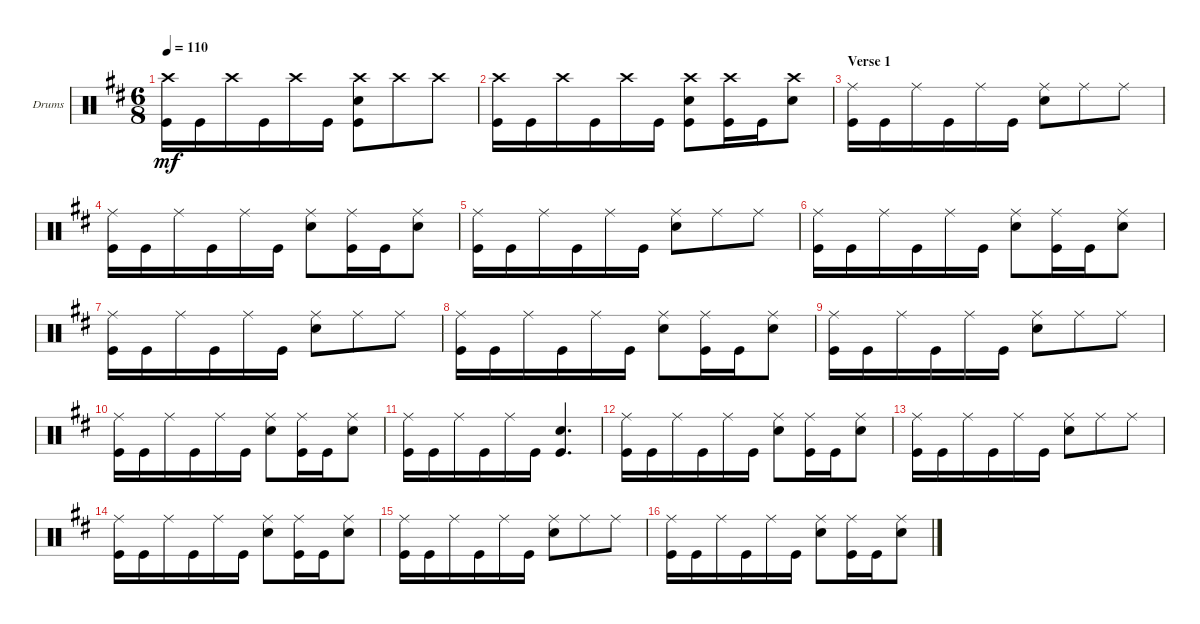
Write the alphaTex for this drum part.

\defaultSystemsLayout 4
\bracketExtendMode groupsimilarinstruments
\firstSystemTrackNameOrientation horizontal
\otherSystemsTrackNameOrientation horizontal
\track ("Drumkit" "Drums") {instrument percussion}
\staff {score}
\articulation defaults
\ts (6 8)
\tempo 110
\clef neutral
\ks d
("Kick (hit)" "Crash high (hit)").16{dy mf} "Kick (hit)".16 "Crash high (hit)".16 "Kick (hit)".16 "Crash high (hit)".16 "Kick (hit)".16 ("Kick (hit)" "Snare (hit) 2" "Crash high (hit)").8 "Crash high (hit)".8 "Crash high (hit)".8 |
("Kick (hit)" "Crash high (hit)").16 "Kick (hit)".16 "Crash high (hit)".16 "Kick (hit)".16 "Crash high (hit)".16 "Kick (hit)".16 ("Kick (hit)" "Snare (hit) 2" "Crash high (hit)").8 ("Kick (hit)" "Crash high (hit)").16 "Kick (hit)".16 ("Snare (hit) 2" "Crash high (hit)").8 |
\section ("" "Verse 1")
("Kick (hit)" "Ride (middle)").16 "Kick (hit)".16 "Ride (middle)".16 "Kick (hit)".16 "Ride (middle)".16 "Kick (hit)".16 ("Snare (hit) 2" "Ride (middle)").8 "Ride (middle)".8 "Ride (middle)".8 |
("Kick (hit)" "Ride (middle)").16 "Kick (hit)".16 "Ride (middle)".16 "Kick (hit)".16 "Ride (middle)".16 "Kick (hit)".16 ("Snare (hit) 2" "Ride (middle)").8 ("Kick (hit)" "Ride (middle)").16 "Kick (hit)".16 ("Snare (hit) 2" "Ride (middle)").8 |
("Kick (hit)" "Ride (middle)").16 "Kick (hit)".16 "Ride (middle)".16 "Kick (hit)".16 "Ride (middle)".16 "Kick (hit)".16 ("Snare (hit) 2" "Ride (middle)").8 "Ride (middle)".8 "Ride (middle)".8 |
("Kick (hit)" "Ride (middle)").16 "Kick (hit)".16 "Ride (middle)".16 "Kick (hit)".16 "Ride (middle)".16 "Kick (hit)".16 ("Snare (hit) 2" "Ride (middle)").8 ("Kick (hit)" "Ride (middle)").16 "Kick (hit)".16 ("Snare (hit) 2" "Ride (middle)").8 |
("Kick (hit)" "Ride (middle)").16 "Kick (hit)".16 "Ride (middle)".16 "Kick (hit)".16 "Ride (middle)".16 "Kick (hit)".16 ("Snare (hit) 2" "Ride (middle)").8 "Ride (middle)".8 "Ride (middle)".8 |
("Kick (hit)" "Ride (middle)").16 "Kick (hit)".16 "Ride (middle)".16 "Kick (hit)".16 "Ride (middle)".16 "Kick (hit)".16 ("Snare (hit) 2" "Ride (middle)").8 ("Kick (hit)" "Ride (middle)").16 "Kick (hit)".16 ("Snare (hit) 2" "Ride (middle)").8 |
("Kick (hit)" "Ride (middle)").16 "Kick (hit)".16 "Ride (middle)".16 "Kick (hit)".16 "Ride (middle)".16 "Kick (hit)".16 ("Snare (hit) 2" "Ride (middle)").8 "Ride (middle)".8 "Ride (middle)".8 |
("Kick (hit)" "Ride (middle)").16 "Kick (hit)".16 "Ride (middle)".16 "Kick (hit)".16 "Ride (middle)".16 "Kick (hit)".16 ("Snare (hit) 2" "Ride (middle)").8 ("Kick (hit)" "Ride (middle)").16 "Kick (hit)".16 ("Snare (hit) 2" "Ride (middle)").8 |
("Kick (hit)" "Ride (middle)").16 "Kick (hit)".16 "Ride (middle)".16 "Kick (hit)".16 "Ride (middle)".16 "Kick (hit)".16 ("Snare (hit) 2" "Kick (hit)").4{d} |
("Kick (hit)" "Ride (middle)").16 "Kick (hit)".16 "Ride (middle)".16 "Kick (hit)".16 "Ride (middle)".16 "Kick (hit)".16 ("Snare (hit) 2" "Ride (middle)").8 ("Kick (hit)" "Ride (middle)").16 "Kick (hit)".16 ("Snare (hit) 2" "Ride (middle)").8 |
("Kick (hit)" "Ride (middle)").16 "Kick (hit)".16 "Ride (middle)".16 "Kick (hit)".16 "Ride (middle)".16 "Kick (hit)".16 ("Snare (hit) 2" "Ride (middle)").8 "Ride (middle)".8 "Ride (middle)".8 |
("Kick (hit)" "Ride (middle)").16 "Kick (hit)".16 "Ride (middle)".16 "Kick (hit)".16 "Ride (middle)".16 "Kick (hit)".16 ("Snare (hit) 2" "Ride (middle)").8 ("Kick (hit)" "Ride (middle)").16 "Kick (hit)".16 ("Snare (hit) 2" "Ride (middle)").8 |
("Kick (hit)" "Ride (middle)").16 "Kick (hit)".16 "Ride (middle)".16 "Kick (hit)".16 "Ride (middle)".16 "Kick (hit)".16 ("Snare (hit) 2" "Ride (middle)").8 "Ride (middle)".8 "Ride (middle)".8 |
("Kick (hit)" "Ride (middle)").16 "Kick (hit)".16 "Ride (middle)".16 "Kick (hit)".16 "Ride (middle)".16 "Kick (hit)".16 ("Snare (hit) 2" "Ride (middle)").8 ("Kick (hit)" "Ride (middle)").16 "Kick (hit)".16 ("Snare (hit) 2" "Ride (middle)").8
